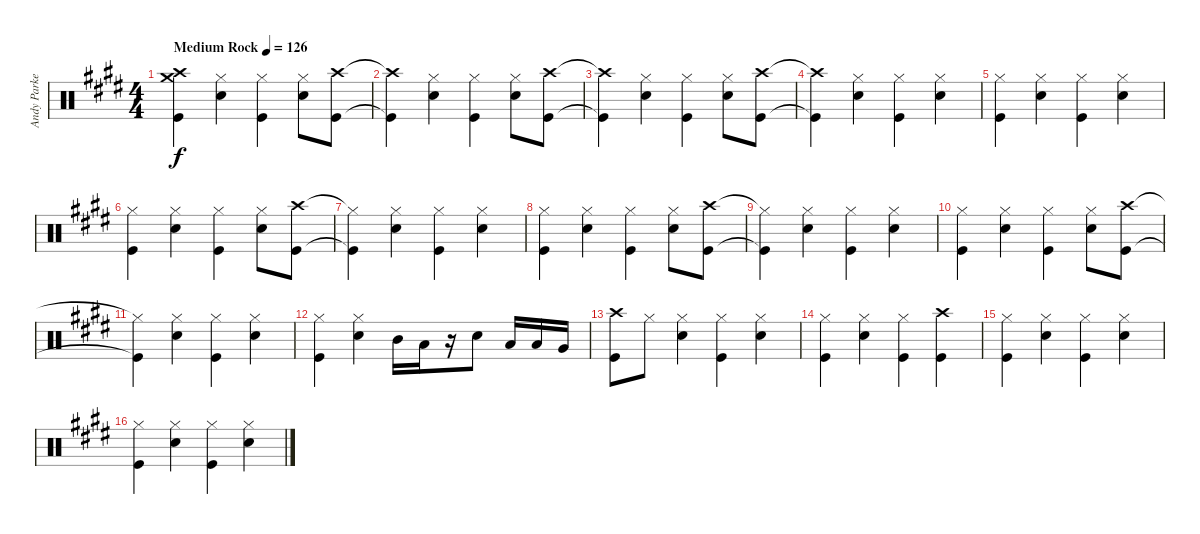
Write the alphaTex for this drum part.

\track ("Andy Parker Drums" "Andy Parke") {instrument percussion}
\staff {score}
\articulation defaults
\ts (4 4)
\tempo (126 "Medium Rock")
\clef neutral
\ks e
("Crash high (hit)" "Crash medium (hit)" "Kick (hit)").4{dy f} ("Hi-Hat (closed)" "Snare (hit) 2").4 ("Hi-Hat (closed)" "Kick (hit)").4 ("Hi-Hat (closed)" "Snare (hit) 2").8 ("Crash high (hit)" "Kick (hit)").8 |
("Crash high (hit)"{t} "Kick (hit)"{t}).4 ("Hi-Hat (closed)" "Snare (hit) 2").4 ("Hi-Hat (closed)" "Kick (hit)").4 ("Hi-Hat (closed)" "Snare (hit) 2").8 ("Crash high (hit)" "Kick (hit)").8 |
("Crash high (hit)"{t} "Kick (hit)"{t}).4 ("Hi-Hat (closed)" "Snare (hit) 2").4 ("Hi-Hat (closed)" "Kick (hit)").4 ("Hi-Hat (closed)" "Snare (hit) 2").8 ("Crash high (hit)" "Kick (hit)").8 |
("Crash high (hit)"{t} "Kick (hit)"{t}).4 ("Hi-Hat (closed)" "Snare (hit) 2").4 ("Hi-Hat (closed)" "Kick (hit)").4 ("Hi-Hat (closed)" "Snare (hit) 2").4 |
("Hi-Hat (closed)" "Kick (hit)").4 ("Hi-Hat (closed)" "Snare (hit) 2").4 ("Hi-Hat (closed)" "Kick (hit)").4 ("Hi-Hat (closed)" "Snare (hit) 2").4 |
("Hi-Hat (closed)" "Kick (hit)").4 ("Hi-Hat (closed)" "Snare (hit) 2").4 ("Hi-Hat (closed)" "Kick (hit)").4 ("Hi-Hat (closed)" "Snare (hit) 2").8 ("Crash high (hit)" "Kick (hit)").8 |
("Hi-Hat (closed)"{t} "Kick (hit)"{t}).4 ("Hi-Hat (closed)" "Snare (hit) 2").4 ("Hi-Hat (closed)" "Kick (hit)").4 ("Hi-Hat (closed)" "Snare (hit) 2").4 |
("Hi-Hat (closed)" "Kick (hit)").4 ("Hi-Hat (closed)" "Snare (hit) 2").4 ("Hi-Hat (closed)" "Kick (hit)").4 ("Hi-Hat (closed)" "Snare (hit) 2").8 ("Crash high (hit)" "Kick (hit)").8 |
("Hi-Hat (closed)"{t} "Kick (hit)"{t}).4 ("Hi-Hat (closed)" "Snare (hit) 2").4 ("Hi-Hat (closed)" "Kick (hit)").4 ("Hi-Hat (closed)" "Snare (hit) 2").4 |
("Hi-Hat (closed)" "Kick (hit)").4 ("Hi-Hat (closed)" "Snare (hit) 2").4 ("Hi-Hat (closed)" "Kick (hit)").4 ("Hi-Hat (closed)" "Snare (hit) 2").8 ("Crash high (hit)" "Kick (hit)").8 |
("Hi-Hat (closed)"{t} "Kick (hit)"{t}).4 ("Hi-Hat (closed)" "Snare (hit) 2").4 ("Hi-Hat (closed)" "Kick (hit)").4 ("Hi-Hat (closed)" "Snare (hit) 2").4 |
("Hi-Hat (closed)" "Kick (hit)").4 ("Hi-Hat (closed)" "Snare (hit) 2").4 "Mid Tom (hit)".16 "Low Tom (hit)".16 r.16 "Snare (hit) 2".8 "Low Tom (hit)".16 "Low Tom (hit)".16 "Very Low Tom (hit)".16 |
("Crash high (hit)" "Kick (hit)").8 "Hi-Hat (closed)".8 ("Hi-Hat (closed)" "Snare (hit) 2").4 ("Hi-Hat (closed)" "Kick (hit)").4 ("Hi-Hat (closed)" "Snare (hit) 2").4 |
("Hi-Hat (closed)" "Kick (hit)").4 ("Hi-Hat (closed)" "Snare (hit) 2").4 ("Hi-Hat (closed)" "Kick (hit)").4 ("Crash high (hit)" "Kick (hit)").4 |
("Hi-Hat (closed)" "Kick (hit)").4 ("Hi-Hat (closed)" "Snare (hit) 2").4 ("Hi-Hat (closed)" "Kick (hit)").4 ("Hi-Hat (closed)" "Snare (hit) 2").4 |
("Hi-Hat (closed)" "Kick (hit)").4 ("Hi-Hat (closed)" "Snare (hit) 2").4 ("Hi-Hat (closed)" "Kick (hit)").4 ("Hi-Hat (closed)" "Snare (hit) 2").4
